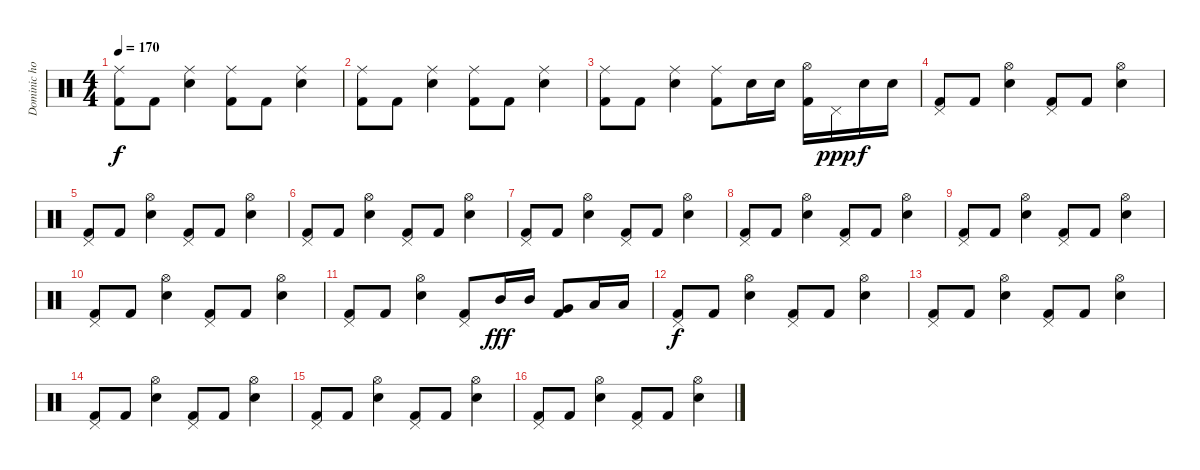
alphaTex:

\track ("Dominic howard" "Dominic ho") {instrument percussion}
\staff {score}
\articulation defaults
\ts (4 4)
\tempo 170
\clef neutral
\ks c
("Ride (middle)" "Kick (hit) 2").8{dy f} "Kick (hit) 2".8 ("Ride (middle)" "Electric Snare (hit)").4 ("Ride (middle)" "Kick (hit) 2").8 "Kick (hit) 2".8 ("Ride (middle)" "Electric Snare (hit)").4 |
("Ride (middle)" "Kick (hit) 2").8 "Kick (hit) 2".8 ("Ride (middle)" "Electric Snare (hit)").4 ("Ride (middle)" "Kick (hit) 2").8 "Kick (hit) 2".8 ("Ride (middle)" "Electric Snare (hit)").4 |
("Ride (middle)" "Kick (hit) 2").8 "Kick (hit) 2".8 ("Ride (middle)" "Electric Snare (hit)").4 ("Ride (middle)" "Kick (hit) 2").8 "Electric Snare (hit)".16 "Electric Snare (hit)".16 ("Hi-Hat (open)" "Kick (hit) 2").16 "Pedal Hi-Hat (hit)".16{dy ppp} "Electric Snare (hit)".16{dy f} "Electric Snare (hit)".16 |
("Pedal Hi-Hat (hit)" "Kick (hit) 2").8 "Kick (hit) 2".8 ("Hi-Hat (open)" "Electric Snare (hit)").4 ("Pedal Hi-Hat (hit)" "Kick (hit) 2").8 "Kick (hit) 2".8 ("Hi-Hat (open)" "Electric Snare (hit)").4 |
("Pedal Hi-Hat (hit)" "Kick (hit) 2").8 "Kick (hit) 2".8 ("Hi-Hat (open)" "Electric Snare (hit)").4 ("Pedal Hi-Hat (hit)" "Kick (hit) 2").8 "Kick (hit) 2".8 ("Hi-Hat (open)" "Electric Snare (hit)").4 |
("Pedal Hi-Hat (hit)" "Kick (hit) 2").8 "Kick (hit) 2".8 ("Hi-Hat (open)" "Electric Snare (hit)").4 ("Pedal Hi-Hat (hit)" "Kick (hit) 2").8 "Kick (hit) 2".8 ("Hi-Hat (open)" "Electric Snare (hit)").4 |
("Pedal Hi-Hat (hit)" "Kick (hit) 2").8 "Kick (hit) 2".8 ("Hi-Hat (open)" "Electric Snare (hit)").4 ("Pedal Hi-Hat (hit)" "Kick (hit) 2").8 "Kick (hit) 2".8 ("Hi-Hat (open)" "Electric Snare (hit)").4 |
("Pedal Hi-Hat (hit)" "Kick (hit) 2").8 "Kick (hit) 2".8 ("Hi-Hat (open)" "Electric Snare (hit)").4 ("Pedal Hi-Hat (hit)" "Kick (hit) 2").8 "Kick (hit) 2".8 ("Hi-Hat (open)" "Electric Snare (hit)").4 |
("Pedal Hi-Hat (hit)" "Kick (hit) 2").8 "Kick (hit) 2".8 ("Hi-Hat (open)" "Electric Snare (hit)").4 ("Pedal Hi-Hat (hit)" "Kick (hit) 2").8 "Kick (hit) 2".8 ("Hi-Hat (open)" "Electric Snare (hit)").4 |
("Pedal Hi-Hat (hit)" "Kick (hit) 2").8 "Kick (hit) 2".8 ("Hi-Hat (open)" "Electric Snare (hit)").4 ("Pedal Hi-Hat (hit)" "Kick (hit) 2").8 "Kick (hit) 2".8 ("Hi-Hat (open)" "Electric Snare (hit)").4 |
("Pedal Hi-Hat (hit)" "Kick (hit) 2").8 "Kick (hit) 2".8 ("Hi-Hat (open)" "Electric Snare (hit)").4 ("Pedal Hi-Hat (hit)" "Kick (hit) 2").8 "Mid Tom (hit)".16{dy fff} "Mid Tom (hit)".16 ("Very Low Tom (hit)" "Kick (hit) 2").8 "Low Tom (hit)".16 "Low Tom (hit)".16 |
("Pedal Hi-Hat (hit)" "Kick (hit) 2").8{dy f} "Kick (hit) 2".8 ("Hi-Hat (open)" "Electric Snare (hit)").4 ("Pedal Hi-Hat (hit)" "Kick (hit) 2").8 "Kick (hit) 2".8 ("Hi-Hat (open)" "Electric Snare (hit)").4 |
("Pedal Hi-Hat (hit)" "Kick (hit) 2").8 "Kick (hit) 2".8 ("Hi-Hat (open)" "Electric Snare (hit)").4 ("Pedal Hi-Hat (hit)" "Kick (hit) 2").8 "Kick (hit) 2".8 ("Hi-Hat (open)" "Electric Snare (hit)").4 |
("Pedal Hi-Hat (hit)" "Kick (hit) 2").8 "Kick (hit) 2".8 ("Hi-Hat (open)" "Electric Snare (hit)").4 ("Pedal Hi-Hat (hit)" "Kick (hit) 2").8 "Kick (hit) 2".8 ("Hi-Hat (open)" "Electric Snare (hit)").4 |
("Pedal Hi-Hat (hit)" "Kick (hit) 2").8 "Kick (hit) 2".8 ("Hi-Hat (open)" "Electric Snare (hit)").4 ("Pedal Hi-Hat (hit)" "Kick (hit) 2").8 "Kick (hit) 2".8 ("Hi-Hat (open)" "Electric Snare (hit)").4 |
("Pedal Hi-Hat (hit)" "Kick (hit) 2").8 "Kick (hit) 2".8 ("Hi-Hat (open)" "Electric Snare (hit)").4 ("Pedal Hi-Hat (hit)" "Kick (hit) 2").8 "Kick (hit) 2".8 ("Hi-Hat (open)" "Electric Snare (hit)").4
